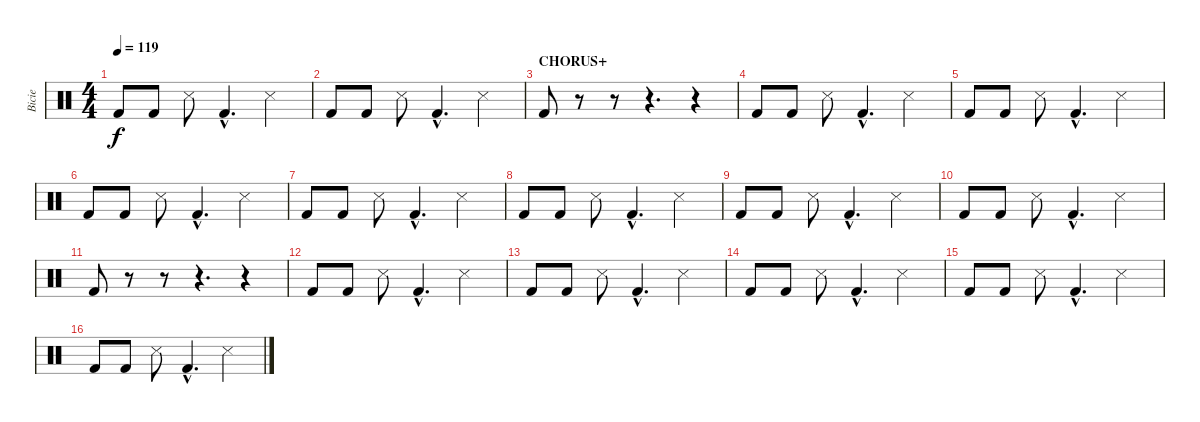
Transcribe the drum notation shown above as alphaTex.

\track ("Bicie" "Bicie") {instrument percussion}
\staff {score}
\articulation defaults
\ts (4 4)
\tempo 119
\clef neutral
\ks c "Kick (hit) 2".8{dy f} "Kick (hit) 2".8 "Metronome (hit)".8 "Kick (hit) 2"{hac}.4{d} "Metronome (hit)".4
|
"Kick (hit) 2".8 "Kick (hit) 2".8 "Metronome (hit)".8 "Kick (hit) 2"{hac}.4{d} "Metronome (hit)".4 |
\section ("" "CHORUS+")
"Kick (hit) 2".8 r.8 r.8 r.4{d} r.4 |
"Kick (hit) 2".8 "Kick (hit) 2".8 "Metronome (hit)".8 "Kick (hit) 2"{hac}.4{d} "Metronome (hit)".4 |
"Kick (hit) 2".8 "Kick (hit) 2".8 "Metronome (hit)".8 "Kick (hit) 2"{hac}.4{d} "Metronome (hit)".4 |
"Kick (hit) 2".8 "Kick (hit) 2".8 "Metronome (hit)".8 "Kick (hit) 2"{hac}.4{d} "Metronome (hit)".4 |
"Kick (hit) 2".8 "Kick (hit) 2".8 "Metronome (hit)".8 "Kick (hit) 2"{hac}.4{d} "Metronome (hit)".4 |
"Kick (hit) 2".8 "Kick (hit) 2".8 "Metronome (hit)".8 "Kick (hit) 2"{hac}.4{d} "Metronome (hit)".4 |
"Kick (hit) 2".8 "Kick (hit) 2".8 "Metronome (hit)".8 "Kick (hit) 2"{hac}.4{d} "Metronome (hit)".4 |
"Kick (hit) 2".8 "Kick (hit) 2".8 "Metronome (hit)".8 "Kick (hit) 2"{hac}.4{d} "Metronome (hit)".4 |
"Kick (hit) 2".8 r.8 r.8 r.4{d} r.4 |
"Kick (hit) 2".8 "Kick (hit) 2".8 "Metronome (hit)".8 "Kick (hit) 2"{hac}.4{d} "Metronome (hit)".4 |
"Kick (hit) 2".8 "Kick (hit) 2".8 "Metronome (hit)".8 "Kick (hit) 2"{hac}.4{d} "Metronome (hit)".4 |
"Kick (hit) 2".8 "Kick (hit) 2".8 "Metronome (hit)".8 "Kick (hit) 2"{hac}.4{d} "Metronome (hit)".4 |
"Kick (hit) 2".8 "Kick (hit) 2".8 "Metronome (hit)".8 "Kick (hit) 2"{hac}.4{d} "Metronome (hit)".4 |
"Kick (hit) 2".8 "Kick (hit) 2".8 "Metronome (hit)".8 "Kick (hit) 2"{hac}.4{d} "Metronome (hit)".4
